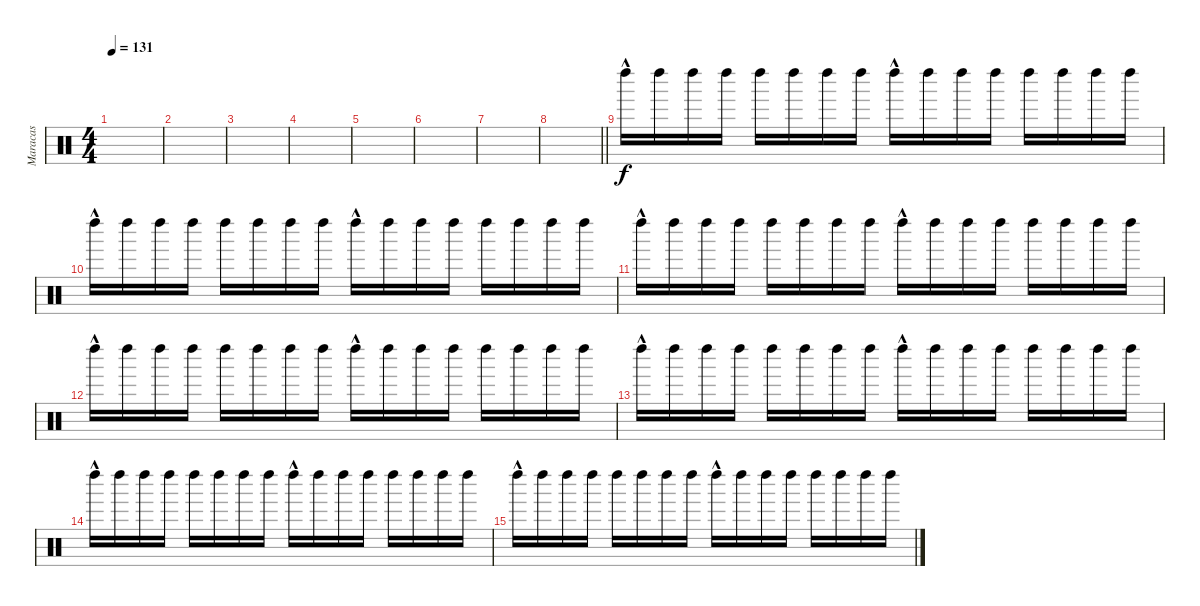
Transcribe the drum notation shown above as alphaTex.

\track ("Maracas" "Maracas") {instrument percussion}
\staff {score}
\articulation defaults
\ts (4 4)
\tempo 131
\clef neutral
\ks c
|
|
|
|
|
|
|
\barLineRight lightlight
|
"Left Maraca (hit)"{hac}.16 "Left Maraca (hit)".16 "Left Maraca (hit)".16 "Left Maraca (hit)".16 "Left Maraca (hit)".16 "Left Maraca (hit)".16 "Left Maraca (hit)".16 "Left Maraca (hit)".16 "Left Maraca (hit)"{hac}.16 "Left Maraca (hit)".16 "Left Maraca (hit)".16 "Left Maraca (hit)".16 "Left Maraca (hit)".16 "Left Maraca (hit)".16 "Left Maraca (hit)".16 "Left Maraca (hit)".16 |
"Left Maraca (hit)"{hac}.16 "Left Maraca (hit)".16 "Left Maraca (hit)".16 "Left Maraca (hit)".16 "Left Maraca (hit)".16 "Left Maraca (hit)".16 "Left Maraca (hit)".16 "Left Maraca (hit)".16 "Left Maraca (hit)"{hac}.16 "Left Maraca (hit)".16 "Left Maraca (hit)".16 "Left Maraca (hit)".16 "Left Maraca (hit)".16 "Left Maraca (hit)".16 "Left Maraca (hit)".16 "Left Maraca (hit)".16 |
"Left Maraca (hit)"{hac}.16 "Left Maraca (hit)".16 "Left Maraca (hit)".16 "Left Maraca (hit)".16 "Left Maraca (hit)".16 "Left Maraca (hit)".16 "Left Maraca (hit)".16 "Left Maraca (hit)".16 "Left Maraca (hit)"{hac}.16 "Left Maraca (hit)".16 "Left Maraca (hit)".16 "Left Maraca (hit)".16 "Left Maraca (hit)".16 "Left Maraca (hit)".16 "Left Maraca (hit)".16 "Left Maraca (hit)".16 |
"Left Maraca (hit)"{hac}.16 "Left Maraca (hit)".16 "Left Maraca (hit)".16 "Left Maraca (hit)".16 "Left Maraca (hit)".16 "Left Maraca (hit)".16 "Left Maraca (hit)".16 "Left Maraca (hit)".16 "Left Maraca (hit)"{hac}.16 "Left Maraca (hit)".16 "Left Maraca (hit)".16 "Left Maraca (hit)".16 "Left Maraca (hit)".16 "Left Maraca (hit)".16 "Left Maraca (hit)".16 "Left Maraca (hit)".16 |
"Left Maraca (hit)"{hac}.16 "Left Maraca (hit)".16 "Left Maraca (hit)".16 "Left Maraca (hit)".16 "Left Maraca (hit)".16 "Left Maraca (hit)".16 "Left Maraca (hit)".16 "Left Maraca (hit)".16 "Left Maraca (hit)"{hac}.16 "Left Maraca (hit)".16 "Left Maraca (hit)".16 "Left Maraca (hit)".16 "Left Maraca (hit)".16 "Left Maraca (hit)".16 "Left Maraca (hit)".16 "Left Maraca (hit)".16 |
"Left Maraca (hit)"{hac}.16 "Left Maraca (hit)".16 "Left Maraca (hit)".16 "Left Maraca (hit)".16 "Left Maraca (hit)".16 "Left Maraca (hit)".16 "Left Maraca (hit)".16 "Left Maraca (hit)".16 "Left Maraca (hit)"{hac}.16 "Left Maraca (hit)".16 "Left Maraca (hit)".16 "Left Maraca (hit)".16 "Left Maraca (hit)".16 "Left Maraca (hit)".16 "Left Maraca (hit)".16 "Left Maraca (hit)".16 |
"Left Maraca (hit)"{hac}.16 "Left Maraca (hit)".16 "Left Maraca (hit)".16 "Left Maraca (hit)".16 "Left Maraca (hit)".16 "Left Maraca (hit)".16 "Left Maraca (hit)".16 "Left Maraca (hit)".16 "Left Maraca (hit)"{hac}.16 "Left Maraca (hit)".16 "Left Maraca (hit)".16 "Left Maraca (hit)".16 "Left Maraca (hit)".16 "Left Maraca (hit)".16 "Left Maraca (hit)".16 "Left Maraca (hit)".16
